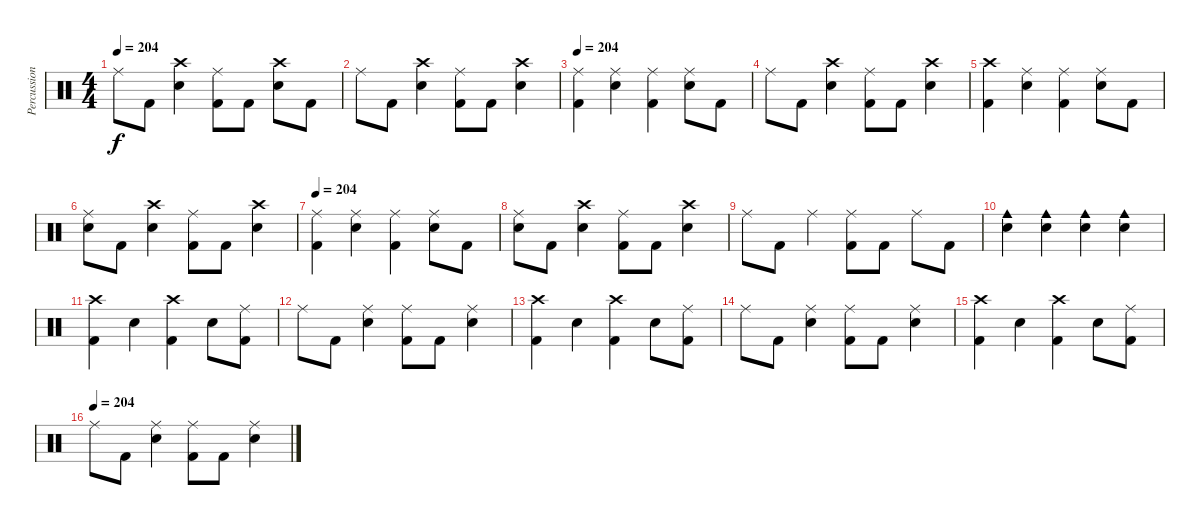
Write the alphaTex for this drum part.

\track ("Percussion" "Percussion") {instrument percussion}
\staff {score}
\articulation defaults
\ts (4 4)
\tempo 204
\clef neutral
\ks c "Ride (middle)".8{dy f} "Kick (hit) 2".8
("Snare (hit) 2" "Crash high (hit)").4 ("Kick (hit) 2" "Ride (middle)").8 "Kick (hit) 2".8 ("Snare (hit) 2" "Crash high (hit)").8 "Kick (hit) 2".8 |
"Ride (middle)".8 "Kick (hit) 2".8 ("Snare (hit) 2" "Crash high (hit)").4 ("Kick (hit) 2" "Ride (middle)").8 "Kick (hit) 2".8 ("Snare (hit) 2" "Crash high (hit)").4 |
\tempo 204
("Kick (hit) 2" "Ride (middle)").4 ("Snare (hit) 2" "Ride (middle)").4 ("Kick (hit) 2" "Ride (middle)").4 ("Snare (hit) 2" "Ride (middle)").8 "Kick (hit) 2".8 |
"Ride (middle)".8 "Kick (hit) 2".8 ("Snare (hit) 2" "Crash high (hit)").4 ("Kick (hit) 2" "Ride (middle)").8 "Kick (hit) 2".8 ("Snare (hit) 2" "Crash high (hit)").4 |
("Kick (hit) 2" "Crash high (hit)").4 ("Snare (hit) 2" "Ride (middle)").4 ("Kick (hit) 2" "Ride (middle)").4 ("Snare (hit) 2" "Ride (middle)").8 "Kick (hit) 2".8 |
("Snare (hit) 2" "Ride (middle)").8 "Kick (hit) 2".8 ("Snare (hit) 2" "Crash high (hit)").4 ("Kick (hit) 2" "Ride (middle)").8 "Kick (hit) 2".8 ("Snare (hit) 2" "Crash high (hit)").4 |
\tempo 204
("Kick (hit) 2" "Ride (middle)").4 ("Snare (hit) 2" "Ride (middle)").4 ("Kick (hit) 2" "Ride (middle)").4 ("Snare (hit) 2" "Ride (middle)").8 "Kick (hit) 2".8 |
("Snare (hit) 2" "Ride (middle)").8 "Kick (hit) 2".8 ("Snare (hit) 2" "Crash high (hit)").4 ("Kick (hit) 2" "Ride (middle)").8 "Kick (hit) 2".8 ("Snare (hit) 2" "Crash high (hit)").4 |
"Ride (middle)".8 "Kick (hit) 2".8 "Ride (middle)".4 ("Kick (hit) 2" "Ride (middle)").8 "Kick (hit) 2".8 "Ride (middle)".8 "Kick (hit) 2".8 |
("Snare (hit) 2" "Cowbell medium (hit)").4 ("Snare (hit) 2" "Cowbell medium (hit)").4 ("Snare (hit) 2" "Cowbell medium (hit)").4 ("Snare (hit) 2" "Cowbell medium (hit)").4 |
("Kick (hit) 2" "Crash high (hit)").4 "Snare (hit) 2".4 ("Kick (hit) 2" "Crash high (hit)").4 "Snare (hit) 2".8 ("Kick (hit) 2" "Ride (middle)").8 |
"Ride (middle)".8 "Kick (hit) 2".8 ("Snare (hit) 2" "Ride (middle)").4 ("Kick (hit) 2" "Ride (middle)").8 "Kick (hit) 2".8 ("Snare (hit) 2" "Ride (middle)").4 |
("Kick (hit) 2" "Crash high (hit)").4 "Snare (hit) 2".4 ("Kick (hit) 2" "Crash high (hit)").4 "Snare (hit) 2".8 ("Kick (hit) 2" "Ride (middle)").8 |
"Ride (middle)".8 "Kick (hit) 2".8 ("Snare (hit) 2" "Ride (middle)").4 ("Kick (hit) 2" "Ride (middle)").8 "Kick (hit) 2".8 ("Snare (hit) 2" "Ride (middle)").4 |
("Kick (hit) 2" "Crash high (hit)").4 "Snare (hit) 2".4 ("Kick (hit) 2" "Crash high (hit)").4 "Snare (hit) 2".8 ("Kick (hit) 2" "Ride (middle)").8 |
\tempo (204)
"Ride (middle)".8 "Kick (hit) 2".8 ("Snare (hit) 2" "Ride (middle)").4 ("Kick (hit) 2" "Ride (middle)").8 "Kick (hit) 2".8 ("Snare (hit) 2" "Ride (middle)").4
